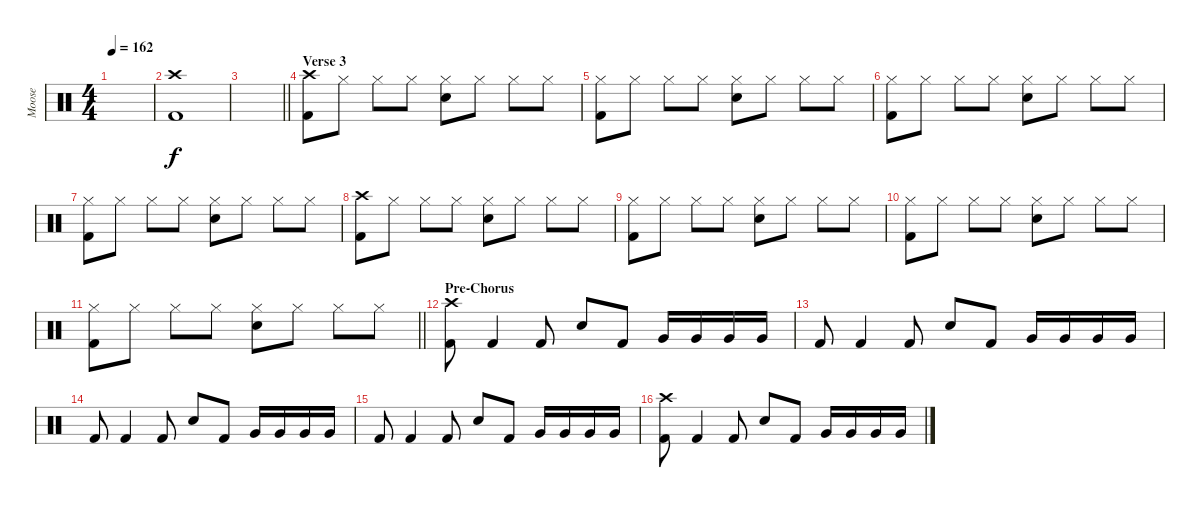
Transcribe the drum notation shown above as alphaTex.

\track ("Moose" "Moose") {instrument percussion}
\staff {score}
\articulation defaults
\ts (4 4)
\tempo 162
\clef neutral
\ks c
|
("Crash high (hit)" "Kick (hit) 2").1 |
\barLineRight lightlight
|
\section ("" "Verse 3")
("Crash high (hit)" "Kick (hit) 2").8 "Hi-Hat (closed)".8 "Hi-Hat (closed)".8 "Hi-Hat (closed)".8 ("Hi-Hat (closed)" "Snare (hit) 2").8 "Hi-Hat (closed)".8 "Hi-Hat (closed)".8 "Hi-Hat (closed)".8 |
("Hi-Hat (closed)" "Kick (hit) 2").8 "Hi-Hat (closed)".8 "Hi-Hat (closed)".8 "Hi-Hat (closed)".8 ("Hi-Hat (closed)" "Snare (hit) 2").8 "Hi-Hat (closed)".8 "Hi-Hat (closed)".8 "Hi-Hat (closed)".8 |
("Hi-Hat (closed)" "Kick (hit) 2").8 "Hi-Hat (closed)".8 "Hi-Hat (closed)".8 "Hi-Hat (closed)".8 ("Hi-Hat (closed)" "Snare (hit) 2").8 "Hi-Hat (closed)".8 "Hi-Hat (closed)".8 "Hi-Hat (closed)".8 |
("Hi-Hat (closed)" "Kick (hit) 2").8 "Hi-Hat (closed)".8 "Hi-Hat (closed)".8 "Hi-Hat (closed)".8 ("Hi-Hat (closed)" "Snare (hit) 2").8 "Hi-Hat (closed)".8 "Hi-Hat (closed)".8 "Hi-Hat (closed)".8 |
("Crash high (hit)" "Kick (hit) 2").8 "Hi-Hat (closed)".8 "Hi-Hat (closed)".8 "Hi-Hat (closed)".8 ("Hi-Hat (closed)" "Snare (hit) 2").8 "Hi-Hat (closed)".8 "Hi-Hat (closed)".8 "Hi-Hat (closed)".8 |
("Hi-Hat (closed)" "Kick (hit) 2").8 "Hi-Hat (closed)".8 "Hi-Hat (closed)".8 "Hi-Hat (closed)".8 ("Hi-Hat (closed)" "Snare (hit) 2").8 "Hi-Hat (closed)".8 "Hi-Hat (closed)".8 "Hi-Hat (closed)".8 |
("Hi-Hat (closed)" "Kick (hit) 2").8 "Hi-Hat (closed)".8 "Hi-Hat (closed)".8 "Hi-Hat (closed)".8 ("Hi-Hat (closed)" "Snare (hit) 2").8 "Hi-Hat (closed)".8 "Hi-Hat (closed)".8 "Hi-Hat (closed)".8 |
\barLineRight lightlight
("Hi-Hat (closed)" "Kick (hit) 2").8 "Hi-Hat (closed)".8 "Hi-Hat (closed)".8 "Hi-Hat (closed)".8 ("Hi-Hat (closed)" "Snare (hit) 2").8 "Hi-Hat (closed)".8 "Hi-Hat (closed)".8 "Hi-Hat (closed)".8 |
\section ("" "Pre-Chorus")
("Crash high (hit)" "Kick (hit) 2").8 "Kick (hit) 2".4 "Kick (hit) 2".8 "Snare (hit) 2".8 "Kick (hit) 2".8 "Very Low Tom (hit)".16 "Very Low Tom (hit)".16 "Very Low Tom (hit)".16 "Very Low Tom (hit)".16 |
"Kick (hit) 2".8 "Kick (hit) 2".4 "Kick (hit) 2".8 "Snare (hit) 2".8 "Kick (hit) 2".8 "Very Low Tom (hit)".16 "Very Low Tom (hit)".16 "Very Low Tom (hit)".16 "Very Low Tom (hit)".16 |
"Kick (hit) 2".8 "Kick (hit) 2".4 "Kick (hit) 2".8 "Snare (hit) 2".8 "Kick (hit) 2".8 "Very Low Tom (hit)".16 "Very Low Tom (hit)".16 "Very Low Tom (hit)".16 "Very Low Tom (hit)".16 |
"Kick (hit) 2".8 "Kick (hit) 2".4 "Kick (hit) 2".8 "Snare (hit) 2".8 "Kick (hit) 2".8 "Very Low Tom (hit)".16 "Very Low Tom (hit)".16 "Very Low Tom (hit)".16 "Very Low Tom (hit)".16 |
("Crash high (hit)" "Kick (hit) 2").8 "Kick (hit) 2".4 "Kick (hit) 2".8 "Snare (hit) 2".8 "Kick (hit) 2".8 "Very Low Tom (hit)".16 "Very Low Tom (hit)".16 "Very Low Tom (hit)".16 "Very Low Tom (hit)".16
